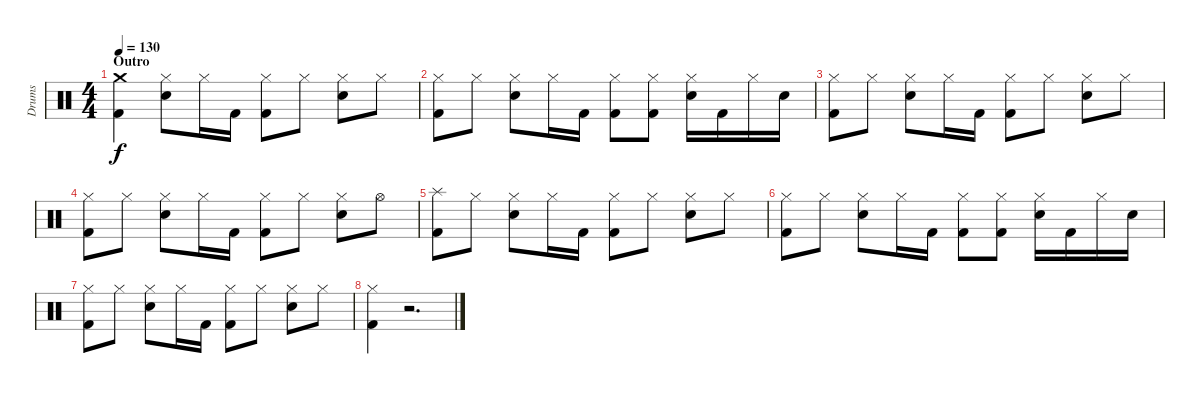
\track ("Drums" "Drums") {instrument percussion}
\staff {score}
\articulation defaults
\ts (4 4)
\section ("" "Outro")
\tempo 130
\clef neutral
\ks c
("Crash medium (hit)" "Kick (hit) 2").4{dy f} ("Hi-Hat (closed)" "Snare (hit) 2").8 "Hi-Hat (closed)".16 "Kick (hit) 2".16 ("Hi-Hat (closed)" "Kick (hit) 2").8 "Hi-Hat (closed)".8 ("Hi-Hat (closed)" "Snare (hit) 2").8 "Hi-Hat (closed)".8 |
("Hi-Hat (closed)" "Kick (hit) 2").8 "Hi-Hat (closed)".8 ("Hi-Hat (closed)" "Snare (hit) 2").8 "Hi-Hat (closed)".16 "Kick (hit) 2".16 ("Hi-Hat (closed)" "Kick (hit) 2").8 ("Hi-Hat (closed)" "Kick (hit) 2").8 ("Hi-Hat (closed)" "Snare (hit) 2").16 "Kick (hit) 2".16 "Hi-Hat (closed)".16 "Snare (hit) 2".16 |
("Hi-Hat (closed)" "Kick (hit) 2").8 "Hi-Hat (closed)".8 ("Hi-Hat (closed)" "Snare (hit) 2").8 "Hi-Hat (closed)".16 "Kick (hit) 2".16 ("Hi-Hat (closed)" "Kick (hit) 2").8 "Hi-Hat (closed)".8 ("Hi-Hat (closed)" "Snare (hit) 2").8 "Hi-Hat (closed)".8 |
("Hi-Hat (closed)" "Kick (hit) 2").8 "Hi-Hat (closed)".8 ("Hi-Hat (closed)" "Snare (hit) 2").8 "Hi-Hat (closed)".16 "Kick (hit) 2".16 ("Hi-Hat (closed)" "Kick (hit) 2").8 "Hi-Hat (closed)".8 ("Hi-Hat (closed)" "Snare (hit) 2").8 "Hi-Hat (open)".8 |
("Splash (hit)" "Kick (hit) 2").8 "Hi-Hat (closed)".8 ("Hi-Hat (closed)" "Snare (hit) 2").8 "Hi-Hat (closed)".16 "Kick (hit) 2".16 ("Hi-Hat (closed)" "Kick (hit) 2").8 "Hi-Hat (closed)".8 ("Hi-Hat (closed)" "Snare (hit) 2").8 "Hi-Hat (closed)".8 |
("Hi-Hat (closed)" "Kick (hit) 2").8 "Hi-Hat (closed)".8 ("Hi-Hat (closed)" "Snare (hit) 2").8 "Hi-Hat (closed)".16 "Kick (hit) 2".16 ("Hi-Hat (closed)" "Kick (hit) 2").8 ("Hi-Hat (closed)" "Kick (hit) 2").8 ("Hi-Hat (closed)" "Snare (hit) 2").16 "Kick (hit) 2".16 "Hi-Hat (closed)".16 "Snare (hit) 2".16 |
("Hi-Hat (closed)" "Kick (hit) 2").8 "Hi-Hat (closed)".8 ("Hi-Hat (closed)" "Snare (hit) 2").8 "Hi-Hat (closed)".16 "Kick (hit) 2".16 ("Hi-Hat (closed)" "Kick (hit) 2").8 "Hi-Hat (closed)".8 ("Hi-Hat (closed)" "Snare (hit) 2").8 "Hi-Hat (closed)".8 |
("Hi-Hat (closed)" "Kick (hit) 2").4 r.2{d}
